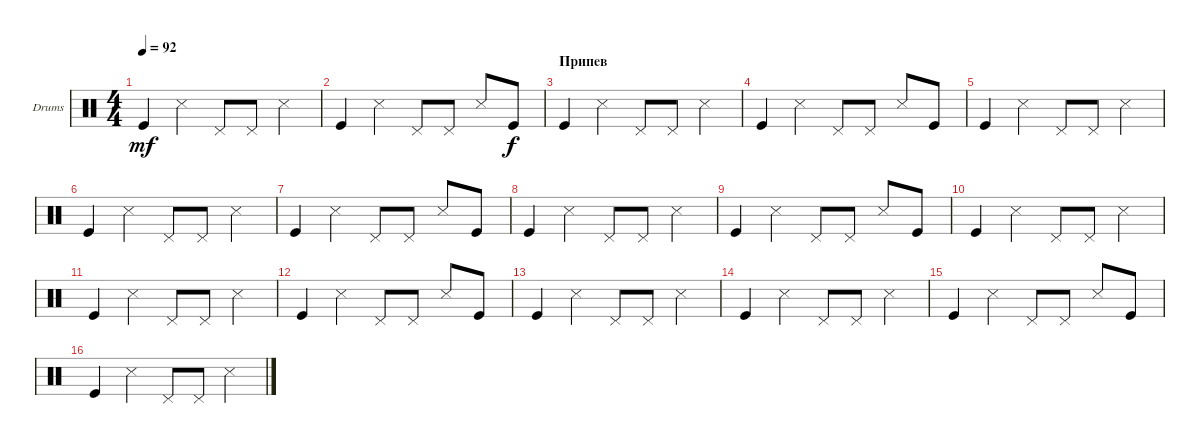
\defaultSystemsLayout 4
\bracketExtendMode groupsimilarinstruments
\firstSystemTrackNameOrientation horizontal
\otherSystemsTrackNameOrientation horizontal
\track ("Е. Кулаков" "Drums") {instrument percussion}
\staff {score}
\articulation defaults
\ts (4 4)
\tempo 92
\clef neutral
\ks c "Kick (hit)".4{dy mf} "Snare (side stick) 3".4 "Pedal Hi-Hat (hit)".8 "Pedal Hi-Hat (hit)".8 "Snare (side stick) 3".4
|
"Kick (hit)".4 "Snare (side stick) 3".4 "Pedal Hi-Hat (hit)".8 "Pedal Hi-Hat (hit)".8 "Snare (side stick) 3".8 "Kick (hit)".8{dy f} |
\section ("" "Припев")
"Kick (hit)".4 "Snare (side stick) 3".4 "Pedal Hi-Hat (hit)".8 "Pedal Hi-Hat (hit)".8 "Snare (side stick) 3".4 |
"Kick (hit)".4 "Snare (side stick) 3".4 "Pedal Hi-Hat (hit)".8 "Pedal Hi-Hat (hit)".8 "Snare (side stick) 3".8 "Kick (hit)".8 |
"Kick (hit)".4 "Snare (side stick) 3".4 "Pedal Hi-Hat (hit)".8 "Pedal Hi-Hat (hit)".8 "Snare (side stick) 3".4 |
"Kick (hit)".4 "Snare (side stick) 3".4 "Pedal Hi-Hat (hit)".8 "Pedal Hi-Hat (hit)".8 "Snare (side stick) 3".4 |
"Kick (hit)".4 "Snare (side stick) 3".4 "Pedal Hi-Hat (hit)".8 "Pedal Hi-Hat (hit)".8 "Snare (side stick) 3".8 "Kick (hit)".8 |
"Kick (hit)".4 "Snare (side stick) 3".4 "Pedal Hi-Hat (hit)".8 "Pedal Hi-Hat (hit)".8 "Snare (side stick) 3".4 |
"Kick (hit)".4 "Snare (side stick) 3".4 "Pedal Hi-Hat (hit)".8 "Pedal Hi-Hat (hit)".8 "Snare (side stick) 3".8 "Kick (hit)".8 |
"Kick (hit)".4 "Snare (side stick) 3".4 "Pedal Hi-Hat (hit)".8 "Pedal Hi-Hat (hit)".8 "Snare (side stick) 3".4 |
"Kick (hit)".4 "Snare (side stick) 3".4 "Pedal Hi-Hat (hit)".8 "Pedal Hi-Hat (hit)".8 "Snare (side stick) 3".4 |
"Kick (hit)".4 "Snare (side stick) 3".4 "Pedal Hi-Hat (hit)".8 "Pedal Hi-Hat (hit)".8 "Snare (side stick) 3".8 "Kick (hit)".8 |
"Kick (hit)".4 "Snare (side stick) 3".4 "Pedal Hi-Hat (hit)".8 "Pedal Hi-Hat (hit)".8 "Snare (side stick) 3".4 |
"Kick (hit)".4 "Snare (side stick) 3".4 "Pedal Hi-Hat (hit)".8 "Pedal Hi-Hat (hit)".8 "Snare (side stick) 3".4 |
"Kick (hit)".4 "Snare (side stick) 3".4 "Pedal Hi-Hat (hit)".8 "Pedal Hi-Hat (hit)".8 "Snare (side stick) 3".8 "Kick (hit)".8 |
"Kick (hit)".4 "Snare (side stick) 3".4 "Pedal Hi-Hat (hit)".8 "Pedal Hi-Hat (hit)".8 "Snare (side stick) 3".4
